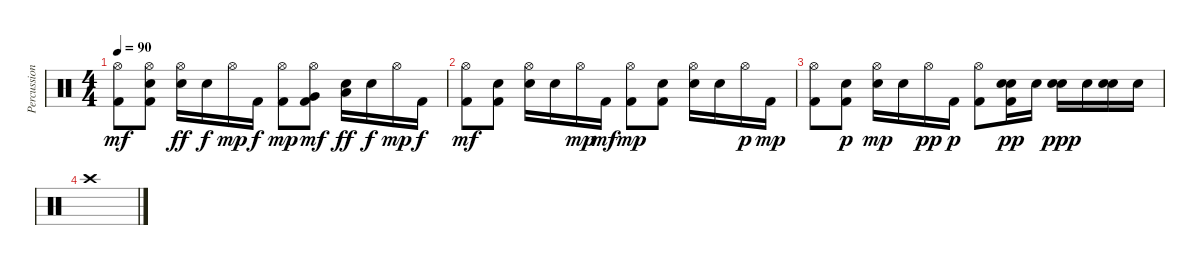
\track ("Percussion" "Percussion") {instrument percussion}
\staff {score}
\articulation defaults
\ts (4 4)
\tempo 90
\clef neutral
\ks c
("Hi-Hat (open)" "Kick (hit) 2").8{dy mf} ("Hi-Hat (open)" "Snare (hit) 2" "Kick (hit) 2").8 ("Hi-Hat (open)" "Snare (hit) 2").16{dy ff} "Snare (hit) 2".16{dy f} "Hi-Hat (open)".16{dy mp} "Kick (hit) 2".16{dy f} ("Hi-Hat (open)" "Kick (hit) 2").8{dy mp} ("Hi-Hat (open)" "Very Low Tom (hit)" "Kick (hit) 2").8{dy mf} ("Low Floor Tom (hit)" "Snare (hit) 2").16{dy ff} "Snare (hit) 2".16{dy f} "Hi-Hat (open)".16{dy mp} "Kick (hit) 2".16{dy f} |
("Hi-Hat (open)" "Kick (hit) 2").8{dy mf} ("Snare (hit) 2" "Kick (hit) 2").8 ("Hi-Hat (open)" "Snare (hit) 2").16 "Snare (hit) 2".16 "Hi-Hat (open)".16{dy mp} "Kick (hit) 2".16{dy mf} ("Hi-Hat (open)" "Kick (hit) 2").8{dy mp} ("Snare (hit) 2" "Kick (hit) 2").8 ("Hi-Hat (open)" "Snare (hit) 2").16 "Snare (hit) 2".16 "Hi-Hat (open)".16{dy p} "Kick (hit) 2".16{dy mp} |
("Hi-Hat (open)" "Kick (hit) 2").8 ("Snare (hit) 2" "Kick (hit) 2").8{dy p} ("Hi-Hat (open)" "Snare (hit) 2").16{dy mp} "Snare (hit) 2".16 "Hi-Hat (open)".16{dy pp} "Kick (hit) 2".16{dy p} ("Hi-Hat (open)" "Kick (hit) 2").8 ("Electric Snare (hit)" "Snare (hit) 2" "Kick (hit) 2").16{dy pp} "Electric Snare (hit)".16 ("Electric Snare (hit)" "Snare (hit) 2").16{dy ppp} "Electric Snare (hit)".16 ("Electric Snare (hit)" "Snare (hit) 2").16 "Electric Snare (hit)".16 |
"Crash high (hit)".1
